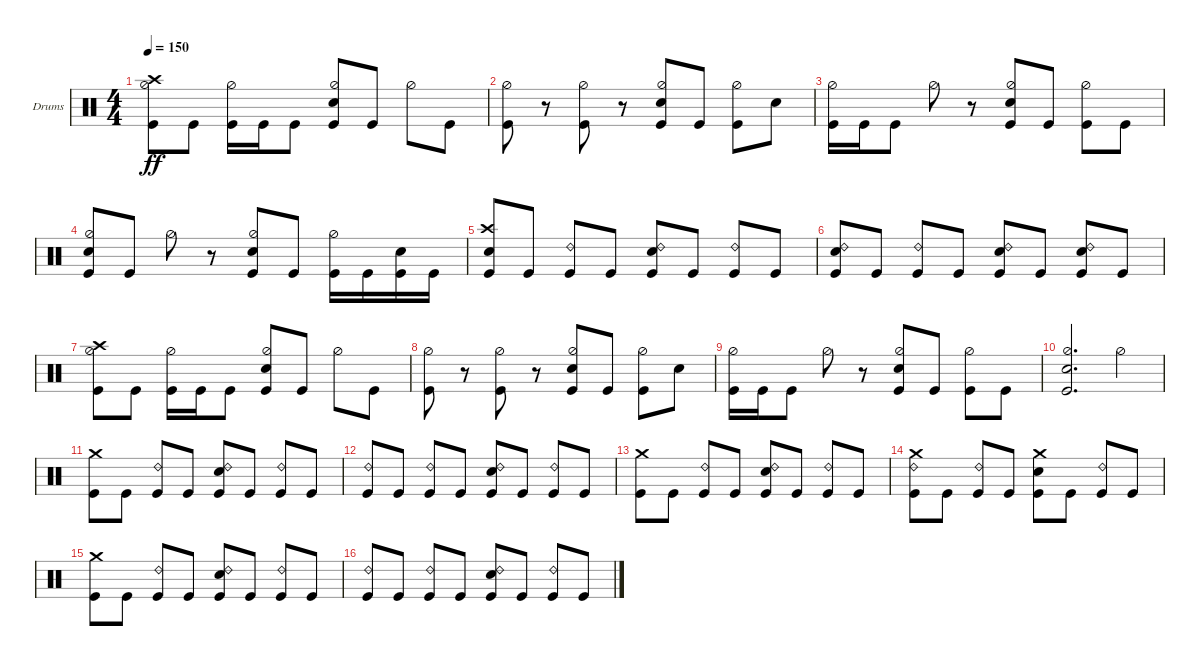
\bracketExtendMode groupsimilarinstruments
\firstSystemTrackNameOrientation horizontal
\otherSystemsTrackNameOrientation horizontal
\track ("Corey" "Drums") {instrument percussion}
\staff {score}
\articulation defaults
\ts (4 4)
\tempo 150
\clef neutral
\ks c
("Kick (hit)" "Hi-Hat (half)" "Crash high (hit)").8{dy ff} "Kick (hit)".8 ("Kick (hit)" "Hi-Hat (half)").16 "Kick (hit)".16 "Kick (hit)".8 ("Kick (hit)" "Hi-Hat (half)" "Snare (hit) 2").8 "Kick (hit)".8 "Hi-Hat (half)".8 "Kick (hit)".8 |
("Kick (hit)" "Hi-Hat (half)").8 r.8 ("Kick (hit)" "Hi-Hat (half)").8 r.8 ("Kick (hit)" "Hi-Hat (half)" "Snare (hit) 2").8 "Kick (hit)".8 ("Kick (hit)" "Hi-Hat (half)").8 "Snare (hit) 2".8 |
("Kick (hit)" "Hi-Hat (half)").16 "Kick (hit)".16 "Kick (hit)".8 "Hi-Hat (half)".8 r.8 ("Kick (hit)" "Hi-Hat (half)" "Snare (hit) 2").8 "Kick (hit)".8 ("Kick (hit)" "Hi-Hat (half)").8 "Kick (hit)".8 |
("Kick (hit)" "Hi-Hat (half)" "Snare (hit) 2").8 "Kick (hit)".8 "Hi-Hat (half)".8 r.8 ("Kick (hit)" "Hi-Hat (half)" "Snare (hit) 2").8 "Kick (hit)".8 ("Kick (hit)" "Hi-Hat (half)").16 "Kick (hit)".16 ("Kick (hit)" "Snare (hit) 2").16 "Kick (hit)".16 |
("Crash high (hit)" "Kick (hit)" "Snare (hit) 2").8 "Kick (hit)".8 ("Kick (hit)" "Ride (bell) 2").8 "Kick (hit)".8 ("Kick (hit)" "Ride (bell) 2" "Snare (hit) 2").8 "Kick (hit)".8 ("Kick (hit)" "Ride (bell) 2").8 "Kick (hit)".8 |
("Kick (hit)" "Ride (bell) 2" "Snare (hit) 2").8 "Kick (hit)".8 ("Kick (hit)" "Ride (bell) 2").8 "Kick (hit)".8 ("Kick (hit)" "Ride (bell) 2" "Snare (hit) 2").8 "Kick (hit)".8 ("Kick (hit)" "Ride (bell) 2" "Snare (hit) 2").8 "Kick (hit)".8 |
("Kick (hit)" "Hi-Hat (half)" "Crash high (hit)").8 "Kick (hit)".8 ("Kick (hit)" "Hi-Hat (half)").16 "Kick (hit)".16 "Kick (hit)".8 ("Kick (hit)" "Hi-Hat (half)" "Snare (hit) 2").8 "Kick (hit)".8 "Hi-Hat (half)".8 "Kick (hit)".8 |
("Kick (hit)" "Hi-Hat (half)").8 r.8 ("Kick (hit)" "Hi-Hat (half)").8 r.8 ("Kick (hit)" "Hi-Hat (half)" "Snare (hit) 2").8 "Kick (hit)".8 ("Kick (hit)" "Hi-Hat (half)").8 "Snare (hit) 2".8 |
("Kick (hit)" "Hi-Hat (half)").16 "Kick (hit)".16 "Kick (hit)".8 "Hi-Hat (half)".8 r.8 ("Kick (hit)" "Hi-Hat (half)" "Snare (hit) 2").8 "Kick (hit)".8 ("Kick (hit)" "Hi-Hat (half)").8 "Kick (hit)".8 |
("Kick (hit)" "Hi-Hat (half)" "Snare (hit) 2").2{d} "Hi-Hat (half)".4 |
("Kick (hit)" "Crash medium (hit)").8 "Kick (hit)".8 ("Kick (hit)" "Ride (bell) 2").8 "Kick (hit)".8 ("Kick (hit)" "Snare (hit) 2" "Ride (bell) 2").8 "Kick (hit)".8 ("Kick (hit)" "Ride (bell) 2").8 "Kick (hit)".8 |
("Kick (hit)" "Ride (bell) 2").8 "Kick (hit)".8 ("Kick (hit)" "Ride (bell) 2").8 "Kick (hit)".8 ("Kick (hit)" "Snare (hit) 2" "Ride (bell) 2").8 "Kick (hit)".8 ("Kick (hit)" "Ride (bell) 2").8 "Kick (hit)".8 |
("Kick (hit)" "Crash medium (hit)").8 "Kick (hit)".8 ("Kick (hit)" "Ride (bell) 2").8 "Kick (hit)".8 ("Kick (hit)" "Snare (hit) 2" "Ride (bell) 2").8 "Kick (hit)".8 ("Kick (hit)" "Ride (bell) 2").8 "Kick (hit)".8 |
("Kick (hit)" "Ride (bell) 2" "Crash medium (hit)").8 "Kick (hit)".8 ("Kick (hit)" "Ride (bell) 2").8 "Kick (hit)".8 ("Kick (hit)" "Crash medium (hit)" "Snare (hit) 2").8 "Kick (hit)".8 ("Kick (hit)" "Ride (bell) 2").8 "Kick (hit)".8 |
("Kick (hit)" "Crash medium (hit)").8 "Kick (hit)".8 ("Kick (hit)" "Ride (bell) 2").8 "Kick (hit)".8 ("Kick (hit)" "Snare (hit) 2" "Ride (bell) 2").8 "Kick (hit)".8 ("Kick (hit)" "Ride (bell) 2").8 "Kick (hit)".8 |
("Kick (hit)" "Ride (bell) 2").8 "Kick (hit)".8 ("Kick (hit)" "Ride (bell) 2").8 "Kick (hit)".8 ("Kick (hit)" "Snare (hit) 2" "Ride (bell) 2").8 "Kick (hit)".8 ("Kick (hit)" "Ride (bell) 2").8 "Kick (hit)".8
